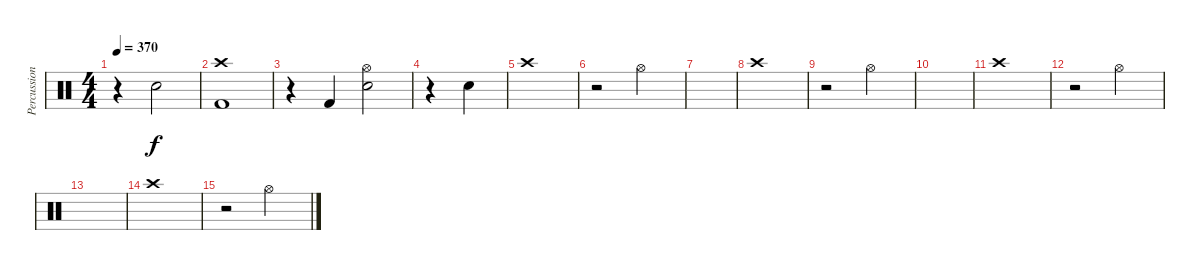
\track ("Percussions" "Percussion") {instrument percussion}
\staff {score}
\articulation defaults
\ts (4 4)
\tempo 370
\clef neutral
\ks c
r.4{dy f} "Snare (hit) 2".2 |
("Crash high (hit)" "Kick (hit) 2").1 |
r.4 "Kick (hit) 2".4 ("Hi-Hat (open)" "Snare (hit) 2").2 |
r.4 "Snare (hit) 2".4 |
"Crash high (hit)".1 |
r.2 "Hi-Hat (open)".2 |
|
"Crash high (hit)".1 |
r.2 "Hi-Hat (open)".2 |
|
"Crash high (hit)".1 |
r.2 "Hi-Hat (open)".2 |
|
"Crash high (hit)".1 |
r.2 "Hi-Hat (open)".2
